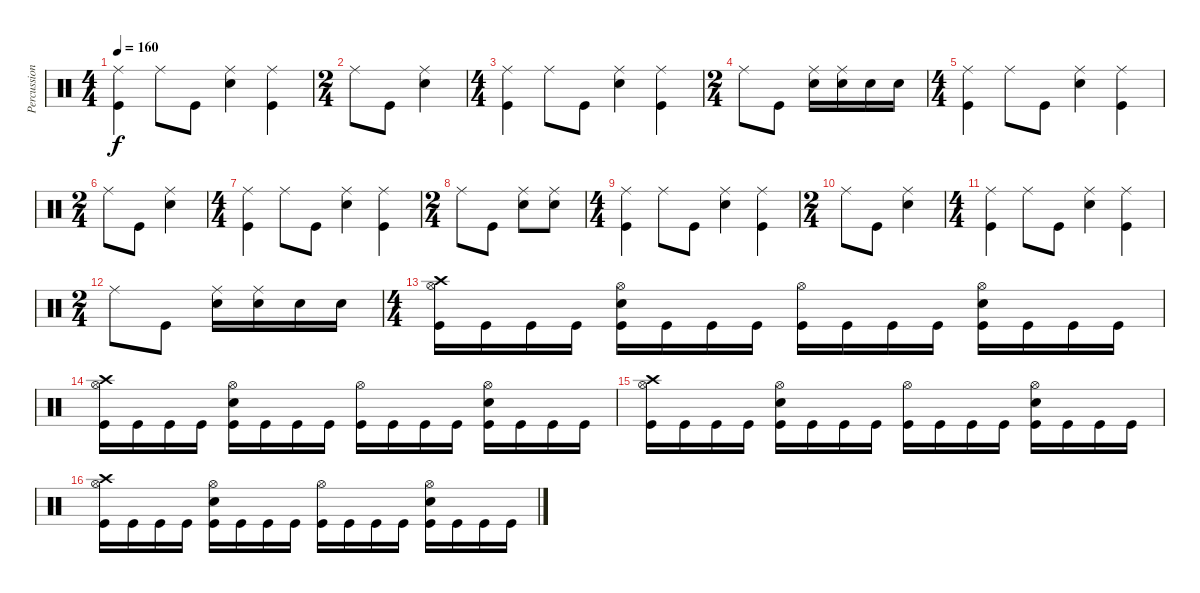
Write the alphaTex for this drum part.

\track ("Percussion" "Percussion") {instrument percussion}
\staff {score}
\articulation defaults
\ts (4 4)
\tempo 160
\clef neutral
\ks c
("Ride (middle)" "Kick (hit)").4{dy f} "Ride (middle)".8 "Kick (hit)".8 ("Ride (middle)" "Electric Snare (hit)").4 ("Ride (middle)" "Kick (hit)").4 |
\ts (2 4)
"Ride (middle)".8 "Kick (hit)".8 ("Ride (middle)" "Electric Snare (hit)").4 |
\ts (4 4)
("Ride (middle)" "Kick (hit)").4 "Ride (middle)".8 "Kick (hit)".8 ("Ride (middle)" "Electric Snare (hit)").4 ("Ride (middle)" "Kick (hit)").4 |
\ts (2 4)
"Ride (middle)".8 "Kick (hit)".8 ("Ride (middle)" "Electric Snare (hit)").16 ("Ride (middle)" "Electric Snare (hit)").16 "Electric Snare (hit)".16 "Electric Snare (hit)".16 |
\ts (4 4)
("Ride (middle)" "Kick (hit)").4 "Ride (middle)".8 "Kick (hit)".8 ("Ride (middle)" "Electric Snare (hit)").4 ("Ride (middle)" "Kick (hit)").4 |
\ts (2 4)
"Ride (middle)".8 "Kick (hit)".8 ("Ride (middle)" "Electric Snare (hit)").4 |
\ts (4 4)
("Ride (middle)" "Kick (hit)").4 "Ride (middle)".8 "Kick (hit)".8 ("Ride (middle)" "Electric Snare (hit)").4 ("Ride (middle)" "Kick (hit)").4 |
\ts (2 4)
"Ride (middle)".8 "Kick (hit)".8 ("Ride (middle)" "Electric Snare (hit)").8 ("Ride (middle)" "Electric Snare (hit)").8 |
\ts (4 4)
("Ride (middle)" "Kick (hit)").4 "Ride (middle)".8 "Kick (hit)".8 ("Ride (middle)" "Electric Snare (hit)").4 ("Ride (middle)" "Kick (hit)").4 |
\ts (2 4)
"Ride (middle)".8 "Kick (hit)".8 ("Ride (middle)" "Electric Snare (hit)").4 |
\ts (4 4)
("Ride (middle)" "Kick (hit)").4 "Ride (middle)".8 "Kick (hit)".8 ("Ride (middle)" "Electric Snare (hit)").4 ("Ride (middle)" "Kick (hit)").4 |
\ts (2 4)
"Ride (middle)".8 "Kick (hit)".8 ("Ride (middle)" "Electric Snare (hit)").16 ("Ride (middle)" "Electric Snare (hit)").16 "Electric Snare (hit)".16 "Electric Snare (hit)".16 |
\ts (4 4)
("Crash high (hit)" "Hi-Hat (open)" "Kick (hit)").16 "Kick (hit)".16 "Kick (hit)".16 "Kick (hit)".16 ("Electric Snare (hit)" "Hi-Hat (open)" "Kick (hit)").16 "Kick (hit)".16 "Kick (hit)".16 "Kick (hit)".16 ("Hi-Hat (open)" "Kick (hit)").16 "Kick (hit)".16 "Kick (hit)".16 "Kick (hit)".16 ("Electric Snare (hit)" "Hi-Hat (open)" "Kick (hit)").16 "Kick (hit)".16 "Kick (hit)".16 "Kick (hit)".16 |
("Crash high (hit)" "Hi-Hat (open)" "Kick (hit)").16 "Kick (hit)".16 "Kick (hit)".16 "Kick (hit)".16 ("Electric Snare (hit)" "Hi-Hat (open)" "Kick (hit)").16 "Kick (hit)".16 "Kick (hit)".16 "Kick (hit)".16 ("Hi-Hat (open)" "Kick (hit)").16 "Kick (hit)".16 "Kick (hit)".16 "Kick (hit)".16 ("Electric Snare (hit)" "Hi-Hat (open)" "Kick (hit)").16 "Kick (hit)".16 "Kick (hit)".16 "Kick (hit)".16 |
("Crash high (hit)" "Hi-Hat (open)" "Kick (hit)").16 "Kick (hit)".16 "Kick (hit)".16 "Kick (hit)".16 ("Electric Snare (hit)" "Hi-Hat (open)" "Kick (hit)").16 "Kick (hit)".16 "Kick (hit)".16 "Kick (hit)".16 ("Hi-Hat (open)" "Kick (hit)").16 "Kick (hit)".16 "Kick (hit)".16 "Kick (hit)".16 ("Electric Snare (hit)" "Hi-Hat (open)" "Kick (hit)").16 "Kick (hit)".16 "Kick (hit)".16 "Kick (hit)".16 |
("Crash high (hit)" "Hi-Hat (open)" "Kick (hit)").16 "Kick (hit)".16 "Kick (hit)".16 "Kick (hit)".16 ("Electric Snare (hit)" "Hi-Hat (open)" "Kick (hit)").16 "Kick (hit)".16 "Kick (hit)".16 "Kick (hit)".16 ("Hi-Hat (open)" "Kick (hit)").16 "Kick (hit)".16 "Kick (hit)".16 "Kick (hit)".16 ("Electric Snare (hit)" "Hi-Hat (open)" "Kick (hit)").16 "Kick (hit)".16 "Kick (hit)".16 "Kick (hit)".16
